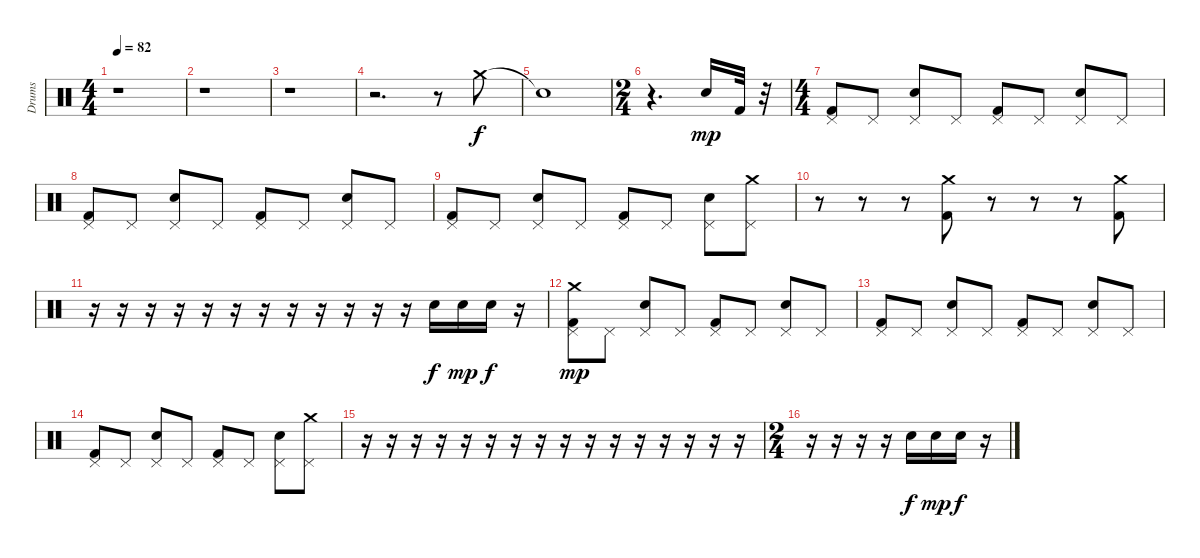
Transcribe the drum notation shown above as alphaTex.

\track ("Drums" "Drums") {instrument percussion}
\staff {score}
\articulation defaults
\ts (4 4)
\tempo 82
\clef neutral
\ks c
r.1{dy f} |
r.1 |
r.1 |
r.2{d} r.8 "Crash medium (hit)".8 |
"Snare (hit)"{t}.1 |
\ts (2 4)
r.4{d} "Electric Snare (hit)".16{dy mp} "Kick (hit) 2".32 r.32 |
\ts (4 4)
("Kick (hit) 2" "Pedal Hi-Hat (hit)").8 "Pedal Hi-Hat (hit)".8 ("Electric Snare (hit)" "Pedal Hi-Hat (hit)").8 "Pedal Hi-Hat (hit)".8 ("Kick (hit) 2" "Pedal Hi-Hat (hit)").8 "Pedal Hi-Hat (hit)".8 ("Electric Snare (hit)" "Pedal Hi-Hat (hit)").8 "Pedal Hi-Hat (hit)".8 |
("Kick (hit) 2" "Pedal Hi-Hat (hit)").8 "Pedal Hi-Hat (hit)".8 ("Electric Snare (hit)" "Pedal Hi-Hat (hit)").8 "Pedal Hi-Hat (hit)".8 ("Kick (hit) 2" "Pedal Hi-Hat (hit)").8 "Pedal Hi-Hat (hit)".8 ("Electric Snare (hit)" "Pedal Hi-Hat (hit)").8 "Pedal Hi-Hat (hit)".8 |
("Kick (hit) 2" "Pedal Hi-Hat (hit)").8 "Pedal Hi-Hat (hit)".8 ("Electric Snare (hit)" "Pedal Hi-Hat (hit)").8 "Pedal Hi-Hat (hit)".8 ("Kick (hit) 2" "Pedal Hi-Hat (hit)").8 "Pedal Hi-Hat (hit)".8 ("Electric Snare (hit)" "Pedal Hi-Hat (hit)").8 ("Crash medium (hit)" "Pedal Hi-Hat (hit)").8 |
r.8 r.8 r.8 ("Crash medium (hit)" "Kick (hit) 2").8 r.8 r.8 r.8 ("Crash medium (hit)" "Kick (hit) 2").8 |
r.16 r.16 r.16 r.16 r.16 r.16 r.16 r.16 r.16 r.16 r.16 r.16 "Electric Snare (hit)".16{dy f} "Electric Snare (hit)".16{dy mp} "Electric Snare (hit)".16{dy f} r.16 |
("Kick (hit) 2" "Pedal Hi-Hat (hit)" "Crash medium (hit)").8{dy mp} "Pedal Hi-Hat (hit)".8 ("Electric Snare (hit)" "Pedal Hi-Hat (hit)").8 "Pedal Hi-Hat (hit)".8 ("Kick (hit) 2" "Pedal Hi-Hat (hit)").8 "Pedal Hi-Hat (hit)".8 ("Electric Snare (hit)" "Pedal Hi-Hat (hit)").8 "Pedal Hi-Hat (hit)".8 |
("Kick (hit) 2" "Pedal Hi-Hat (hit)").8 "Pedal Hi-Hat (hit)".8 ("Electric Snare (hit)" "Pedal Hi-Hat (hit)").8 "Pedal Hi-Hat (hit)".8 ("Kick (hit) 2" "Pedal Hi-Hat (hit)").8 "Pedal Hi-Hat (hit)".8 ("Electric Snare (hit)" "Pedal Hi-Hat (hit)").8 "Pedal Hi-Hat (hit)".8 |
("Kick (hit) 2" "Pedal Hi-Hat (hit)").8 "Pedal Hi-Hat (hit)".8 ("Electric Snare (hit)" "Pedal Hi-Hat (hit)").8 "Pedal Hi-Hat (hit)".8 ("Kick (hit) 2" "Pedal Hi-Hat (hit)").8 "Pedal Hi-Hat (hit)".8 ("Electric Snare (hit)" "Pedal Hi-Hat (hit)").8 ("Pedal Hi-Hat (hit)" "Crash medium (hit)").8 |
r.16 r.16 r.16 r.16 r.16 r.16 r.16 r.16 r.16 r.16 r.16 r.16 r.16 r.16 r.16 r.16 |
\ts (2 4)
r.16 r.16 r.16 r.16 "Electric Snare (hit)".16{dy f} "Electric Snare (hit)".16{dy mp} "Electric Snare (hit)".16{dy f} r.16
